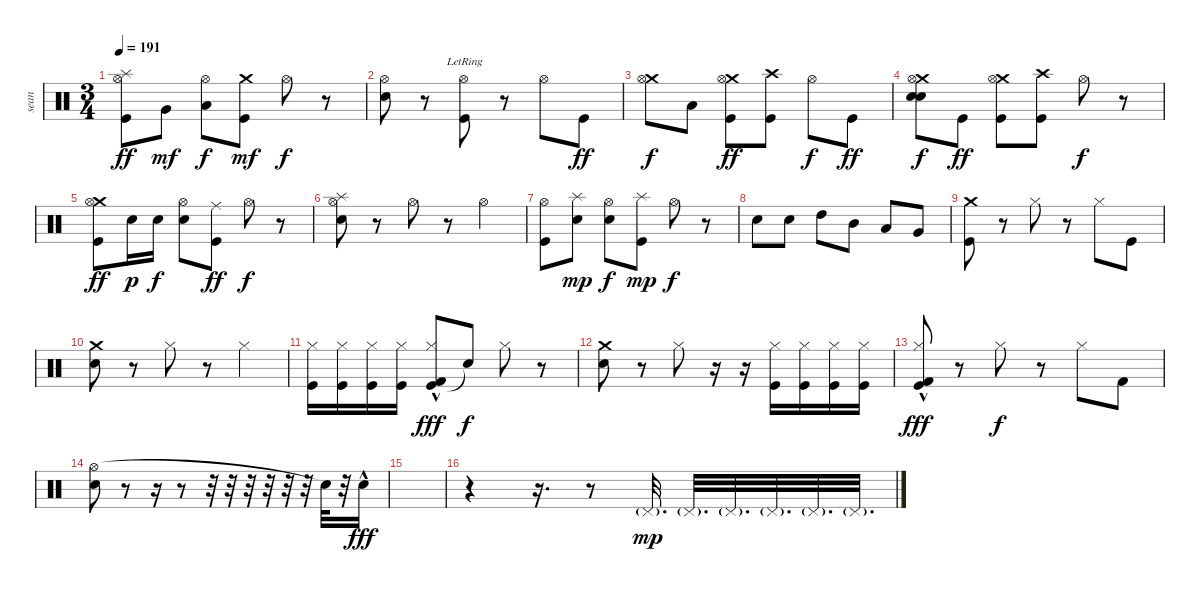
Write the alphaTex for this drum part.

\track ("sean" "sean") {instrument percussion}
\staff {score}
\articulation defaults
\ts (3 4)
\tempo 191
\clef neutral
\ks c
("Splash (hit)" "Hi-Hat (open)" "Kick (hit)").8{dy ff} "Very Low Tom (hit)".8{dy mf} ("Hi-Hat (open)" "Low Floor Tom (hit)").8{dy f} ("Crash medium (hit)" "Kick (hit)").8{dy mf} "Hi-Hat (open)".8{dy f} r.8 |
("Hi-Hat (open)" "Electric Snare (hit)").8 r.8 ("Hi-Hat (open)" "Kick (hit)"{lr}).8 r.8 "Hi-Hat (open)".8 "Kick (hit)".8{dy ff} |
("Crash medium (hit)" "Hi-Hat (open)").8{dy f} "Low Tom (hit)".8 ("Crash medium (hit)" "Hi-Hat (open)" "Kick (hit)").8{dy ff} ("Crash high (hit)" "Kick (hit)").8 "Hi-Hat (open)".8{dy f} "Kick (hit)".8{dy ff} |
("Crash medium (hit)" "Electric Snare (hit)" "Hi-Hat (open)" "Snare (hit) 2").8{dy f} "Kick (hit)".8{dy ff} ("Crash medium (hit)" "Hi-Hat (open)" "Kick (hit)").8 ("Crash high (hit)" "Kick (hit)").8 "Hi-Hat (open)".8{dy f} r.8 |
("Crash medium (hit)" "Hi-Hat (open)" "Kick (hit)").8{dy ff} "Electric Snare (hit)".16{dy p} "Electric Snare (hit)".16{dy f} ("Hi-Hat (open)" "Electric Snare (hit)").8 ("Ride (middle)" "Kick (hit)").8{dy ff} "Hi-Hat (open)".8{dy f} r.8 |
("Splash (hit)" "Hi-Hat (open)" "Electric Snare (hit)").8 r.8 "Hi-Hat (open)".8 r.8 "Hi-Hat (open)".4 |
("Hi-Hat (open)" "Kick (hit)").8 ("Splash (hit)" "Electric Snare (hit)").8{dy mp} ("Hi-Hat (open)" "Electric Snare (hit)").8{dy f} ("Splash (hit)" "Kick (hit)").8{dy mp} "Hi-Hat (open)".8{dy f} r.8 |
"Electric Snare (hit)".8 "Electric Snare (hit)".8 "High Tom (hit)".8 "Mid Tom (hit)".8 "Low Tom (hit)".8 "Very Low Tom (hit)".8 |
("Crash medium (hit)" "Kick (hit)").8 r.8 "Hi-Hat (closed)".8 r.8 "Hi-Hat (closed)".8 "Kick (hit)".8 |
("Crash medium (hit)" "Electric Snare (hit)").8 r.8 "Hi-Hat (closed)".8 r.8 "Hi-Hat (closed)".4 |
("Hi-Hat (closed)" "Kick (hit)").16 ("Hi-Hat (closed)" "Kick (hit)").16 ("Hi-Hat (closed)" "Kick (hit)").16 ("Hi-Hat (closed)" "Kick (hit)").16 ("Kick (hit)" "Hi-Hat (closed)"{hac} "Kick (hit) 2").8{dy fff} "Snare (hit)"{t}.8{dy f} "Hi-Hat (closed)".8 r.8 |
("Crash medium (hit)" "Electric Snare (hit)").8 r.8 "Hi-Hat (closed)".8 r.16 r.16 ("Hi-Hat (closed)" "Kick (hit)").16 ("Hi-Hat (closed)" "Kick (hit)").16 ("Hi-Hat (closed)" "Kick (hit)").16 ("Hi-Hat (closed)" "Kick (hit)").16 |
("Kick (hit)"{hac} "Hi-Hat (closed)" "Kick (hit) 2").8{dy fff} r.8 "Hi-Hat (closed)".8{dy f} r.8 "Hi-Hat (closed)".8 "Kick (hit) 2".8 |
("Hi-Hat (open)" "Electric Snare (hit)").8 r.8 r.16 r.8 r.32 r.32 r.32 r.32 r.32 r.32 "Electric Snare (hit)"{t}.32 r.32 "Electric Snare (hit)"{hac}.16{dy fff} |
|
r.4 r.16{d} r.8 "Pedal Hi-Hat (hit)"{g}.32{d dy mp} "Pedal Hi-Hat (hit)"{g}.32{d} "Pedal Hi-Hat (hit)"{g}.32{d} "Pedal Hi-Hat (hit)"{g}.32{d} "Pedal Hi-Hat (hit)"{g}.32{d} "Pedal Hi-Hat (hit)"{g}.32{d}
